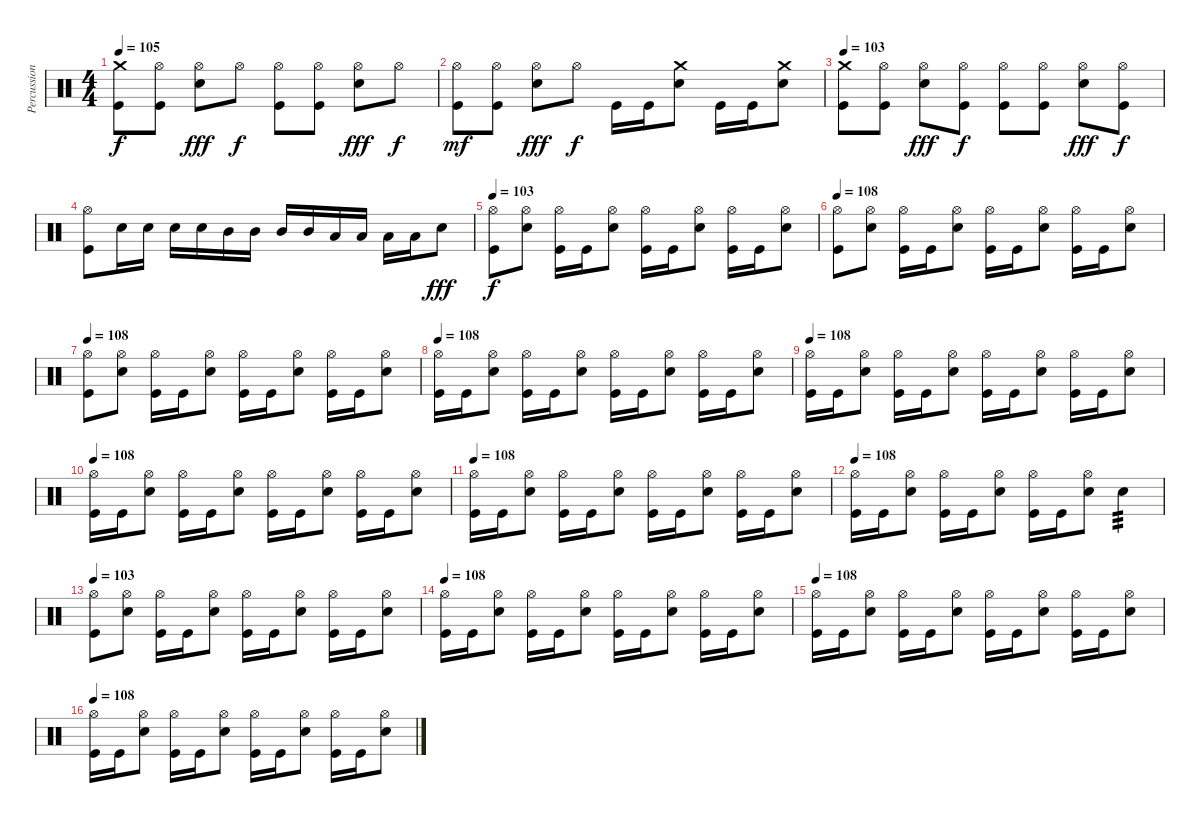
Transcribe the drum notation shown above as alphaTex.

\track ("Percussions" "Percussion") {instrument percussion}
\staff {score}
\articulation defaults
\ts (4 4)
\tempo 105
\clef neutral
\ks c
("Crash medium (hit)" "Kick (hit)").8{dy f} ("Hi-Hat (open)" "Kick (hit)").8 ("Hi-Hat (open)" "Electric Snare (hit)").8{dy fff} "Hi-Hat (open)".8{dy f} ("Hi-Hat (open)" "Kick (hit)").8 ("Hi-Hat (open)" "Kick (hit)").8 ("Hi-Hat (open)" "Electric Snare (hit)").8{dy fff} "Hi-Hat (open)".8{dy f} |
("Hi-Hat (open)" "Kick (hit)").8{dy mf} ("Hi-Hat (open)" "Kick (hit)").8 ("Hi-Hat (open)" "Electric Snare (hit)").8{dy fff} "Hi-Hat (open)".8{dy f} "Kick (hit)".16 "Kick (hit)".16 ("Crash medium (hit)" "Electric Snare (hit)").8 "Kick (hit)".16 "Kick (hit)".16 ("Crash medium (hit)" "Electric Snare (hit)").8 |
\tempo 103
("Crash medium (hit)" "Kick (hit)").8 ("Hi-Hat (open)" "Kick (hit)").8 ("Hi-Hat (open)" "Electric Snare (hit)").8{dy fff} ("Hi-Hat (open)" "Kick (hit)").8{dy f} ("Hi-Hat (open)" "Kick (hit)").8 ("Hi-Hat (open)" "Kick (hit)").8 ("Hi-Hat (open)" "Electric Snare (hit)").8{dy fff} ("Hi-Hat (open)" "Kick (hit)").8{dy f} |
("Hi-Hat (open)" "Kick (hit)").8 "Electric Snare (hit)".16 "Electric Snare (hit)".16 "Electric Snare (hit)".16 "Electric Snare (hit)".16 "Mid Tom (hit)".16 "Mid Tom (hit)".16 "Mid Tom (hit)".16 "Mid Tom (hit)".16 "Low Tom (hit)".16 "Low Tom (hit)".16 "Low Tom (hit)".16 "Low Tom (hit)".16 "Electric Snare (hit)".8{dy fff} |
\tempo 108
\tempo 103
("Hi-Hat (open)" "Kick (hit)").8{dy f} ("Hi-Hat (open)" "Electric Snare (hit)").8 ("Hi-Hat (open)" "Kick (hit)").16 "Kick (hit)".16 ("Hi-Hat (open)" "Electric Snare (hit)").8 ("Hi-Hat (open)" "Kick (hit)").16 "Kick (hit)".16 ("Hi-Hat (open)" "Electric Snare (hit)").8 ("Hi-Hat (open)" "Kick (hit)").16 "Kick (hit)".16 ("Hi-Hat (open)" "Electric Snare (hit)").8 |
\tempo 108
("Hi-Hat (open)" "Kick (hit)").8 ("Hi-Hat (open)" "Electric Snare (hit)").8 ("Hi-Hat (open)" "Kick (hit)").16 "Kick (hit)".16 ("Hi-Hat (open)" "Electric Snare (hit)").8 ("Hi-Hat (open)" "Kick (hit)").16 "Kick (hit)".16 ("Hi-Hat (open)" "Electric Snare (hit)").8 ("Hi-Hat (open)" "Kick (hit)").16 "Kick (hit)".16 ("Hi-Hat (open)" "Electric Snare (hit)").8 |
\tempo 108
("Hi-Hat (open)" "Kick (hit)").8 ("Hi-Hat (open)" "Electric Snare (hit)").8 ("Hi-Hat (open)" "Kick (hit)").16 "Kick (hit)".16 ("Hi-Hat (open)" "Electric Snare (hit)").8 ("Hi-Hat (open)" "Kick (hit)").16 "Kick (hit)".16 ("Hi-Hat (open)" "Electric Snare (hit)").8 ("Hi-Hat (open)" "Kick (hit)").16 "Kick (hit)".16 ("Hi-Hat (open)" "Electric Snare (hit)").8 |
\tempo 108
("Hi-Hat (open)" "Kick (hit)").16 "Kick (hit)".16 ("Hi-Hat (open)" "Electric Snare (hit)").8 ("Hi-Hat (open)" "Kick (hit)").16 "Kick (hit)".16 ("Hi-Hat (open)" "Electric Snare (hit)").8 ("Hi-Hat (open)" "Kick (hit)").16 "Kick (hit)".16 ("Hi-Hat (open)" "Electric Snare (hit)").8 ("Hi-Hat (open)" "Kick (hit)").16 "Kick (hit)".16 ("Hi-Hat (open)" "Electric Snare (hit)").8 |
\tempo 108
("Hi-Hat (open)" "Kick (hit)").16 "Kick (hit)".16 ("Hi-Hat (open)" "Electric Snare (hit)").8 ("Hi-Hat (open)" "Kick (hit)").16 "Kick (hit)".16 ("Hi-Hat (open)" "Electric Snare (hit)").8 ("Hi-Hat (open)" "Kick (hit)").16 "Kick (hit)".16 ("Hi-Hat (open)" "Electric Snare (hit)").8 ("Hi-Hat (open)" "Kick (hit)").16 "Kick (hit)".16 ("Hi-Hat (open)" "Electric Snare (hit)").8 |
\tempo 108
("Hi-Hat (open)" "Kick (hit)").16 "Kick (hit)".16 ("Hi-Hat (open)" "Electric Snare (hit)").8 ("Hi-Hat (open)" "Kick (hit)").16 "Kick (hit)".16 ("Hi-Hat (open)" "Electric Snare (hit)").8 ("Hi-Hat (open)" "Kick (hit)").16 "Kick (hit)".16 ("Hi-Hat (open)" "Electric Snare (hit)").8 ("Hi-Hat (open)" "Kick (hit)").16 "Kick (hit)".16 ("Hi-Hat (open)" "Electric Snare (hit)").8 |
\tempo 108
("Hi-Hat (open)" "Kick (hit)").16 "Kick (hit)".16 ("Hi-Hat (open)" "Electric Snare (hit)").8 ("Hi-Hat (open)" "Kick (hit)").16 "Kick (hit)".16 ("Hi-Hat (open)" "Electric Snare (hit)").8 ("Hi-Hat (open)" "Kick (hit)").16 "Kick (hit)".16 ("Hi-Hat (open)" "Electric Snare (hit)").8 ("Hi-Hat (open)" "Kick (hit)").16 "Kick (hit)".16 ("Hi-Hat (open)" "Electric Snare (hit)").8 |
\tempo 108
("Hi-Hat (open)" "Kick (hit)").16 "Kick (hit)".16 ("Hi-Hat (open)" "Electric Snare (hit)").8 ("Hi-Hat (open)" "Kick (hit)").16 "Kick (hit)".16 ("Hi-Hat (open)" "Electric Snare (hit)").8 ("Hi-Hat (open)" "Kick (hit)").16 "Kick (hit)".16 ("Hi-Hat (open)" "Electric Snare (hit)").8 "Electric Snare (hit)".4{tp 3} |
\tempo 108
\tempo 103
("Hi-Hat (open)" "Kick (hit)").8 ("Hi-Hat (open)" "Electric Snare (hit)").8 ("Hi-Hat (open)" "Kick (hit)").16 "Kick (hit)".16 ("Hi-Hat (open)" "Electric Snare (hit)").8 ("Hi-Hat (open)" "Kick (hit)").16 "Kick (hit)".16 ("Hi-Hat (open)" "Electric Snare (hit)").8 ("Hi-Hat (open)" "Kick (hit)").16 "Kick (hit)".16 ("Hi-Hat (open)" "Electric Snare (hit)").8 |
\tempo 108
("Hi-Hat (open)" "Kick (hit)").16 "Kick (hit)".16 ("Hi-Hat (open)" "Electric Snare (hit)").8 ("Hi-Hat (open)" "Kick (hit)").16 "Kick (hit)".16 ("Hi-Hat (open)" "Electric Snare (hit)").8 ("Hi-Hat (open)" "Kick (hit)").16 "Kick (hit)".16 ("Hi-Hat (open)" "Electric Snare (hit)").8 ("Hi-Hat (open)" "Kick (hit)").16 "Kick (hit)".16 ("Hi-Hat (open)" "Electric Snare (hit)").8 |
\tempo 108
("Hi-Hat (open)" "Kick (hit)").16 "Kick (hit)".16 ("Hi-Hat (open)" "Electric Snare (hit)").8 ("Hi-Hat (open)" "Kick (hit)").16 "Kick (hit)".16 ("Hi-Hat (open)" "Electric Snare (hit)").8 ("Hi-Hat (open)" "Kick (hit)").16 "Kick (hit)".16 ("Hi-Hat (open)" "Electric Snare (hit)").8 ("Hi-Hat (open)" "Kick (hit)").16 "Kick (hit)".16 ("Hi-Hat (open)" "Electric Snare (hit)").8 |
\tempo 108
("Hi-Hat (open)" "Kick (hit)").16 "Kick (hit)".16 ("Hi-Hat (open)" "Electric Snare (hit)").8 ("Hi-Hat (open)" "Kick (hit)").16 "Kick (hit)".16 ("Hi-Hat (open)" "Electric Snare (hit)").8 ("Hi-Hat (open)" "Kick (hit)").16 "Kick (hit)".16 ("Hi-Hat (open)" "Electric Snare (hit)").8 ("Hi-Hat (open)" "Kick (hit)").16 "Kick (hit)".16 ("Hi-Hat (open)" "Electric Snare (hit)").8
